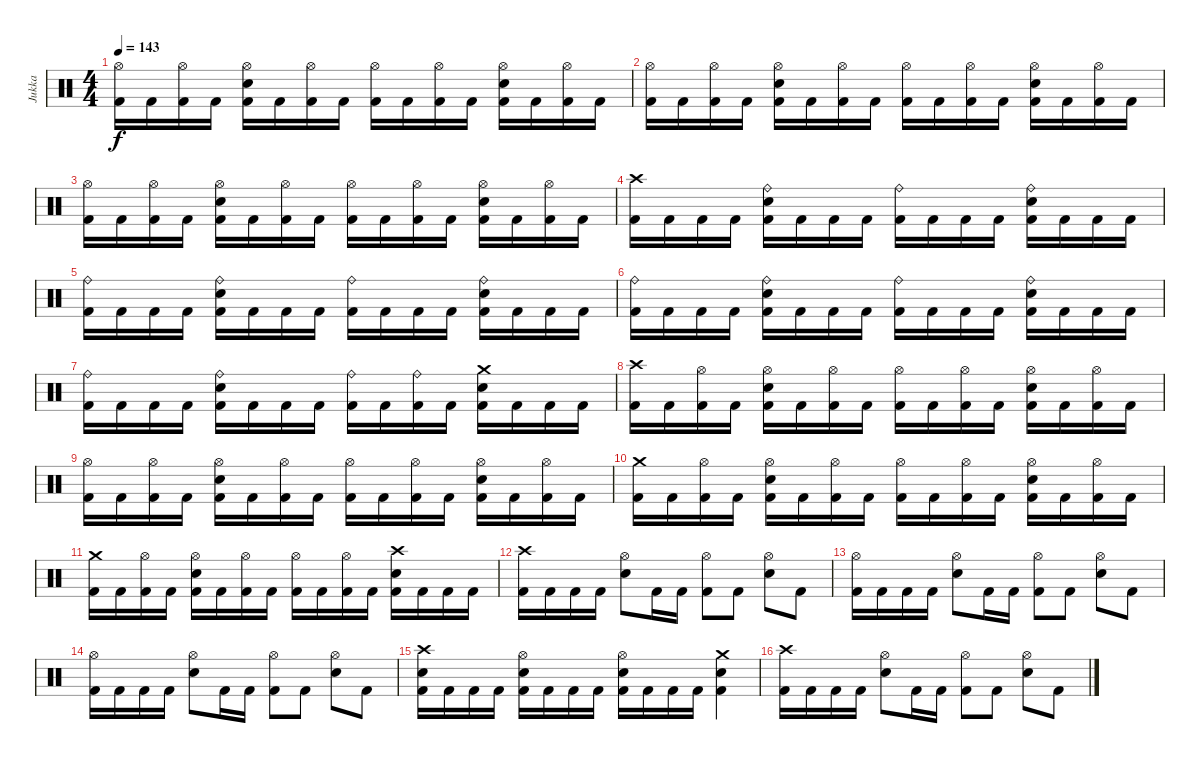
\track ("Jukka" "Jukka") {instrument percussion}
\staff {score}
\articulation defaults
\ts (4 4)
\tempo 143
\clef neutral
\ks c
("Hi-Hat (open)" "Kick (hit) 2").16{dy f} "Kick (hit) 2".16 ("Hi-Hat (open)" "Kick (hit) 2").16 "Kick (hit) 2".16 ("Hi-Hat (open)" "Electric Snare (hit)" "Kick (hit) 2").16 "Kick (hit) 2".16 ("Hi-Hat (open)" "Kick (hit) 2").16 "Kick (hit) 2".16 ("Hi-Hat (open)" "Kick (hit) 2").16 "Kick (hit) 2".16 ("Hi-Hat (open)" "Kick (hit) 2").16 "Kick (hit) 2".16 ("Hi-Hat (open)" "Electric Snare (hit)" "Kick (hit) 2").16 "Kick (hit) 2".16 ("Hi-Hat (open)" "Kick (hit) 2").16 "Kick (hit) 2".16 |
("Hi-Hat (open)" "Kick (hit) 2").16 "Kick (hit) 2".16 ("Hi-Hat (open)" "Kick (hit) 2").16 "Kick (hit) 2".16 ("Hi-Hat (open)" "Electric Snare (hit)" "Kick (hit) 2").16 "Kick (hit) 2".16 ("Hi-Hat (open)" "Kick (hit) 2").16 "Kick (hit) 2".16 ("Hi-Hat (open)" "Kick (hit) 2").16 "Kick (hit) 2".16 ("Hi-Hat (open)" "Kick (hit) 2").16 "Kick (hit) 2".16 ("Hi-Hat (open)" "Electric Snare (hit)" "Kick (hit) 2").16 "Kick (hit) 2".16 ("Hi-Hat (open)" "Kick (hit) 2").16 "Kick (hit) 2".16 |
("Hi-Hat (open)" "Kick (hit) 2").16 "Kick (hit) 2".16 ("Hi-Hat (open)" "Kick (hit) 2").16 "Kick (hit) 2".16 ("Hi-Hat (open)" "Electric Snare (hit)" "Kick (hit) 2").16 "Kick (hit) 2".16 ("Hi-Hat (open)" "Kick (hit) 2").16 "Kick (hit) 2".16 ("Hi-Hat (open)" "Kick (hit) 2").16 "Kick (hit) 2".16 ("Hi-Hat (open)" "Kick (hit) 2").16 "Kick (hit) 2".16 ("Hi-Hat (open)" "Electric Snare (hit)" "Kick (hit) 2").16 "Kick (hit) 2".16 ("Hi-Hat (open)" "Kick (hit) 2").16 "Kick (hit) 2".16 |
("Crash high (hit)" "Kick (hit) 2").16 "Kick (hit) 2".16 "Kick (hit) 2".16 "Kick (hit) 2".16 ("Ride (bell)" "Electric Snare (hit)" "Kick (hit) 2").16 "Kick (hit) 2".16 "Kick (hit) 2".16 "Kick (hit) 2".16 ("Ride (bell)" "Kick (hit) 2").16 "Kick (hit) 2".16 "Kick (hit) 2".16 "Kick (hit) 2".16 ("Ride (bell)" "Electric Snare (hit)" "Kick (hit) 2").16 "Kick (hit) 2".16 "Kick (hit) 2".16 "Kick (hit) 2".16 |
("Ride (bell)" "Kick (hit) 2").16 "Kick (hit) 2".16 "Kick (hit) 2".16 "Kick (hit) 2".16 ("Ride (bell)" "Electric Snare (hit)" "Kick (hit) 2").16 "Kick (hit) 2".16 "Kick (hit) 2".16 "Kick (hit) 2".16 ("Ride (bell)" "Kick (hit) 2").16 "Kick (hit) 2".16 "Kick (hit) 2".16 "Kick (hit) 2".16 ("Ride (bell)" "Electric Snare (hit)" "Kick (hit) 2").16 "Kick (hit) 2".16 "Kick (hit) 2".16 "Kick (hit) 2".16 |
("Ride (bell)" "Kick (hit) 2").16 "Kick (hit) 2".16 "Kick (hit) 2".16 "Kick (hit) 2".16 ("Ride (bell)" "Electric Snare (hit)" "Kick (hit) 2").16 "Kick (hit) 2".16 "Kick (hit) 2".16 "Kick (hit) 2".16 ("Ride (bell)" "Kick (hit) 2").16 "Kick (hit) 2".16 "Kick (hit) 2".16 "Kick (hit) 2".16 ("Ride (bell)" "Electric Snare (hit)" "Kick (hit) 2").16 "Kick (hit) 2".16 "Kick (hit) 2".16 "Kick (hit) 2".16 |
("Ride (bell)" "Kick (hit) 2").16 "Kick (hit) 2".16 "Kick (hit) 2".16 "Kick (hit) 2".16 ("Ride (bell)" "Electric Snare (hit)" "Kick (hit) 2").16 "Kick (hit) 2".16 "Kick (hit) 2".16 "Kick (hit) 2".16 ("Ride (bell)" "Kick (hit) 2").16 "Kick (hit) 2".16 ("Ride (bell)" "Kick (hit) 2").16 "Kick (hit) 2".16 ("Crash medium (hit)" "Electric Snare (hit)" "Kick (hit) 2").16 "Kick (hit) 2".16 "Kick (hit) 2".16 "Kick (hit) 2".16 |
("Crash high (hit)" "Kick (hit) 2").16 "Kick (hit) 2".16 ("Hi-Hat (open)" "Kick (hit) 2").16 "Kick (hit) 2".16 ("Hi-Hat (open)" "Electric Snare (hit)" "Kick (hit) 2").16 "Kick (hit) 2".16 ("Hi-Hat (open)" "Kick (hit) 2").16 "Kick (hit) 2".16 ("Hi-Hat (open)" "Kick (hit) 2").16 "Kick (hit) 2".16 ("Hi-Hat (open)" "Kick (hit) 2").16 "Kick (hit) 2".16 ("Hi-Hat (open)" "Electric Snare (hit)" "Kick (hit) 2").16 "Kick (hit) 2".16 ("Hi-Hat (open)" "Kick (hit) 2").16 "Kick (hit) 2".16 |
("Hi-Hat (open)" "Kick (hit) 2").16 "Kick (hit) 2".16 ("Hi-Hat (open)" "Kick (hit) 2").16 "Kick (hit) 2".16 ("Hi-Hat (open)" "Electric Snare (hit)" "Kick (hit) 2").16 "Kick (hit) 2".16 ("Hi-Hat (open)" "Kick (hit) 2").16 "Kick (hit) 2".16 ("Hi-Hat (open)" "Kick (hit) 2").16 "Kick (hit) 2".16 ("Hi-Hat (open)" "Kick (hit) 2").16 "Kick (hit) 2".16 ("Hi-Hat (open)" "Electric Snare (hit)" "Kick (hit) 2").16 "Kick (hit) 2".16 ("Hi-Hat (open)" "Kick (hit) 2").16 "Kick (hit) 2".16 |
("Crash medium (hit)" "Kick (hit) 2").16 "Kick (hit) 2".16 ("Hi-Hat (open)" "Kick (hit) 2").16 "Kick (hit) 2".16 ("Hi-Hat (open)" "Electric Snare (hit)" "Kick (hit) 2").16 "Kick (hit) 2".16 ("Hi-Hat (open)" "Kick (hit) 2").16 "Kick (hit) 2".16 ("Hi-Hat (open)" "Kick (hit) 2").16 "Kick (hit) 2".16 ("Hi-Hat (open)" "Kick (hit) 2").16 "Kick (hit) 2".16 ("Hi-Hat (open)" "Electric Snare (hit)" "Kick (hit) 2").16 "Kick (hit) 2".16 ("Hi-Hat (open)" "Kick (hit) 2").16 "Kick (hit) 2".16 |
("Crash medium (hit)" "Kick (hit) 2").16 "Kick (hit) 2".16 ("Hi-Hat (open)" "Kick (hit) 2").16 "Kick (hit) 2".16 ("Hi-Hat (open)" "Electric Snare (hit)" "Kick (hit) 2").16 "Kick (hit) 2".16 ("Hi-Hat (open)" "Kick (hit) 2").16 "Kick (hit) 2".16 ("Hi-Hat (open)" "Kick (hit) 2").16 "Kick (hit) 2".16 ("Hi-Hat (open)" "Kick (hit) 2").16 "Kick (hit) 2".16 ("Crash high (hit)" "Electric Snare (hit)" "Kick (hit) 2").16 "Kick (hit) 2".16 "Kick (hit) 2".16 "Kick (hit) 2".16 |
("Crash high (hit)" "Kick (hit) 2").16 "Kick (hit) 2".16 "Kick (hit) 2".16 "Kick (hit) 2".16 ("Hi-Hat (open)" "Electric Snare (hit)").8 "Kick (hit) 2".16 "Kick (hit) 2".16 ("Hi-Hat (open)" "Kick (hit) 2").8 "Kick (hit) 2".8 ("Hi-Hat (open)" "Electric Snare (hit)").8 "Kick (hit) 2".8 |
("Hi-Hat (open)" "Kick (hit) 2").16 "Kick (hit) 2".16 "Kick (hit) 2".16 "Kick (hit) 2".16 ("Hi-Hat (open)" "Electric Snare (hit)").8 "Kick (hit) 2".16 "Kick (hit) 2".16 ("Hi-Hat (open)" "Kick (hit) 2").8 "Kick (hit) 2".8 ("Hi-Hat (open)" "Electric Snare (hit)").8 "Kick (hit) 2".8 |
("Hi-Hat (open)" "Kick (hit) 2").16 "Kick (hit) 2".16 "Kick (hit) 2".16 "Kick (hit) 2".16 ("Hi-Hat (open)" "Electric Snare (hit)").8 "Kick (hit) 2".16 "Kick (hit) 2".16 ("Hi-Hat (open)" "Kick (hit) 2").8 "Kick (hit) 2".8 ("Hi-Hat (open)" "Electric Snare (hit)").8 "Kick (hit) 2".8 |
("Crash high (hit)" "Electric Snare (hit)" "Kick (hit) 2").16 "Kick (hit) 2".16 "Kick (hit) 2".16 "Kick (hit) 2".16 ("Hi-Hat (open)" "Electric Snare (hit)" "Kick (hit) 2").16 "Kick (hit) 2".16 "Kick (hit) 2".16 "Kick (hit) 2".16 ("Hi-Hat (open)" "Electric Snare (hit)" "Kick (hit) 2").16 "Kick (hit) 2".16 "Kick (hit) 2".16 "Kick (hit) 2".16 ("Crash medium (hit)" "Electric Snare (hit)" "Kick (hit) 2").4 |
("Crash high (hit)" "Kick (hit) 2").16 "Kick (hit) 2".16 "Kick (hit) 2".16 "Kick (hit) 2".16 ("Hi-Hat (open)" "Electric Snare (hit)").8 "Kick (hit) 2".16 "Kick (hit) 2".16 ("Hi-Hat (open)" "Kick (hit) 2").8 "Kick (hit) 2".8 ("Hi-Hat (open)" "Electric Snare (hit)").8 "Kick (hit) 2".8
